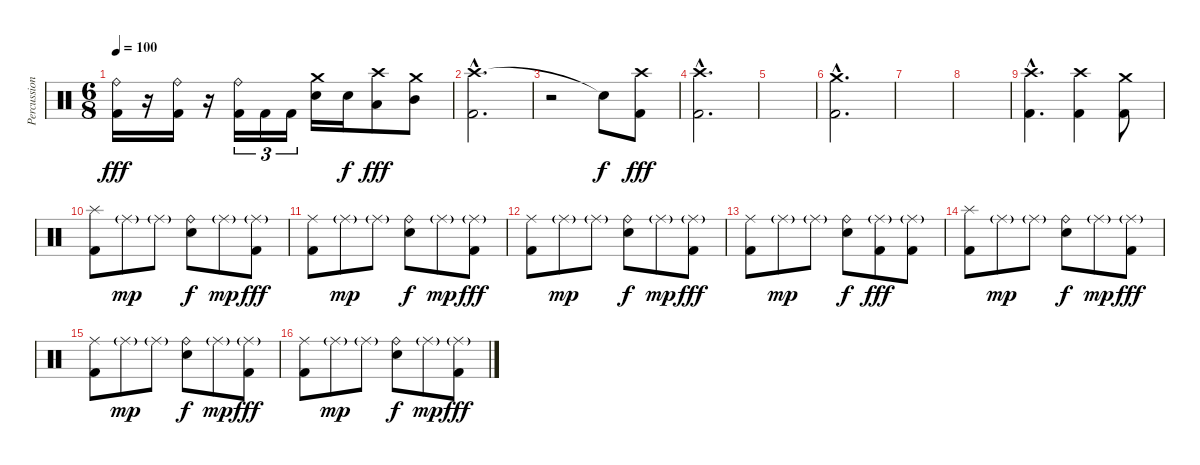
\track ("Percussion" "Percussion") {instrument percussion}
\staff {score}
\articulation defaults
\ts (6 8)
\tempo 100
\clef neutral
\ks c
("Ride (bell)" "Kick (hit) 2").16{dy fff} r.16 ("Ride (bell)" "Kick (hit) 2").16 r.16 ("Ride (bell)" "Kick (hit) 2").16{tu (3 2)} "Kick (hit) 2".16{tu (3 2)} "Kick (hit) 2".16{tu (3 2)} ("Crash medium (hit)" "Electric Snare (hit)").16 "Electric Snare (hit)".16{dy f} ("Crash high (hit)" "Low Tom (hit)").8{dy fff} ("Crash medium (hit)" "Mid Tom (hit)").8 |
("Crash high (hit)"{hac} "Kick (hit) 2"{hac}).2{d} |
r.2 "Snare (hit)"{t}.8{dy f} ("Crash high (hit)" "Kick (hit) 2").8{dy fff} |
("Crash high (hit)"{hac} "Kick (hit) 2"{hac}).2{d} |
|
("Crash medium (hit)"{hac} "Kick (hit) 2"{hac}).2{d} |
|
|
("Crash high (hit)"{hac} "Kick (hit) 2"{hac}).4{d} ("Crash high (hit)" "Kick (hit) 2").4 ("Crash medium (hit)" "Kick (hit) 2").8 |
("Splash (hit)" "Kick (hit) 2").8 "Ride (middle)"{g}.8{dy mp} "Ride (middle)"{g}.8 ("Ride (bell)" "Electric Snare (hit)").8{dy f} "Ride (middle)"{g}.8{dy mp} ("Ride (middle)"{g} "Kick (hit) 2").8{dy fff} |
("Ride (middle)" "Kick (hit) 2").8 "Ride (middle)"{g}.8{dy mp} "Ride (middle)"{g}.8 ("Ride (bell)" "Electric Snare (hit)").8{dy f} "Ride (middle)"{g}.8{dy mp} ("Ride (middle)"{g} "Kick (hit) 2").8{dy fff} |
("Ride (middle)" "Kick (hit) 2").8 "Ride (middle)"{g}.8{dy mp} "Ride (middle)"{g}.8 ("Ride (bell)" "Electric Snare (hit)").8{dy f} "Ride (middle)"{g}.8{dy mp} ("Ride (middle)"{g} "Kick (hit) 2").8{dy fff} |
("Ride (middle)" "Kick (hit) 2").8 "Ride (middle)"{g}.8{dy mp} "Ride (middle)"{g}.8 ("Ride (bell)" "Electric Snare (hit)").8{dy f} ("Ride (middle)"{g} "Kick (hit) 2").8{dy fff} ("Ride (middle)"{g} "Kick (hit) 2").8 |
("Splash (hit)" "Kick (hit) 2").8 "Ride (middle)"{g}.8{dy mp} "Ride (middle)"{g}.8 ("Ride (bell)" "Electric Snare (hit)").8{dy f} "Ride (middle)"{g}.8{dy mp} ("Ride (middle)"{g} "Kick (hit) 2").8{dy fff} |
("Ride (middle)" "Kick (hit) 2").8 "Ride (middle)"{g}.8{dy mp} "Ride (middle)"{g}.8 ("Ride (bell)" "Electric Snare (hit)").8{dy f} "Ride (middle)"{g}.8{dy mp} ("Ride (middle)"{g} "Kick (hit) 2").8{dy fff} |
("Ride (middle)" "Kick (hit) 2").8 "Ride (middle)"{g}.8{dy mp} "Ride (middle)"{g}.8 ("Ride (bell)" "Electric Snare (hit)").8{dy f} "Ride (middle)"{g}.8{dy mp} ("Ride (middle)"{g} "Kick (hit) 2").8{dy fff}
